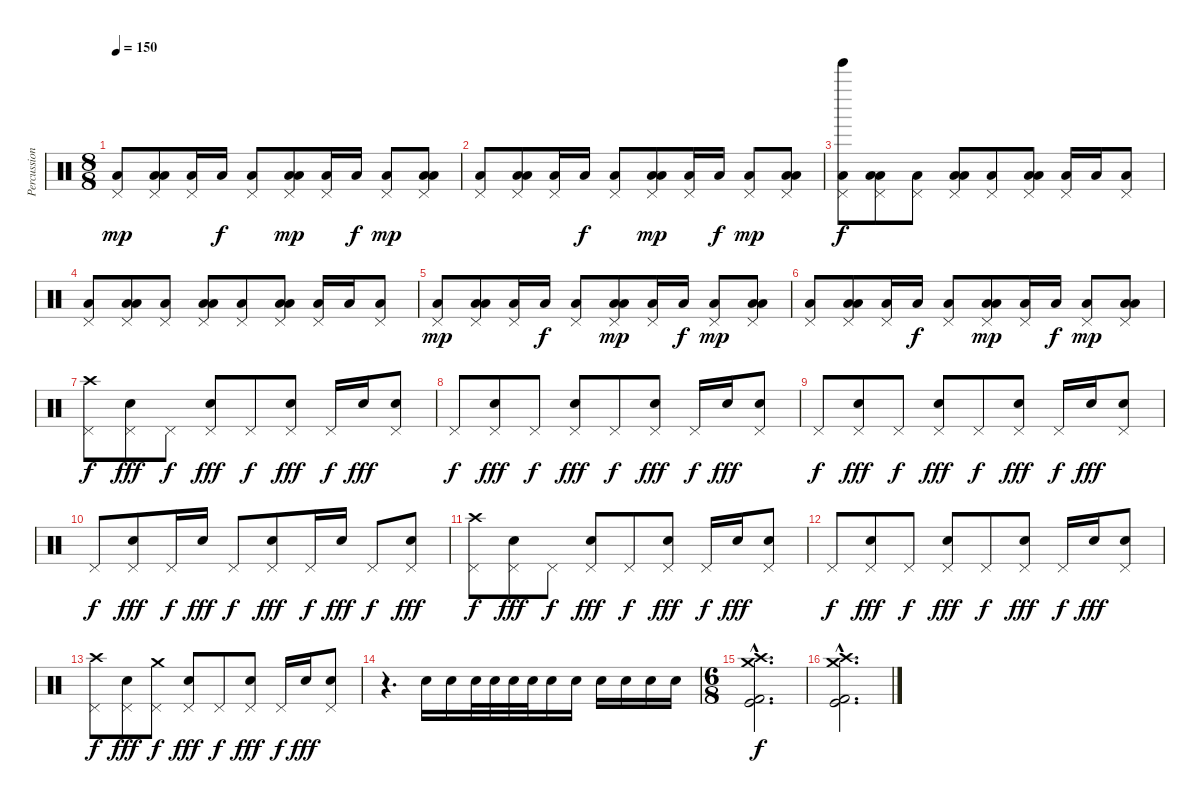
\track ("Percussion" "Percussion") {instrument percussion}
\staff {score}
\articulation defaults
\ts (8 8)
\tempo 150
\clef neutral
\ks c
("Pedal Hi-Hat (hit)" "Low Floor Tom (hit)").8{dy mp} ("Pedal Hi-Hat (hit)" "Low Floor Tom (hit)" "Low Tom (hit)").8 ("Pedal Hi-Hat (hit)" "Low Floor Tom (hit)").16 "Low Tom (hit)".16{dy f} ("Pedal Hi-Hat (hit)" "Low Floor Tom (hit)").8 ("Pedal Hi-Hat (hit)" "Low Floor Tom (hit)" "Low Tom (hit)").8{dy mp} ("Pedal Hi-Hat (hit)" "Low Floor Tom (hit)").16 "Low Tom (hit)".16{dy f} ("Pedal Hi-Hat (hit)" "Low Floor Tom (hit)").8{dy mp} ("Pedal Hi-Hat (hit)" "Low Floor Tom (hit)" "Low Tom (hit)").8 |
("Pedal Hi-Hat (hit)" "Low Floor Tom (hit)").8 ("Pedal Hi-Hat (hit)" "Low Floor Tom (hit)" "Low Tom (hit)").8 ("Pedal Hi-Hat (hit)" "Low Floor Tom (hit)").16 "Low Tom (hit)".16{dy f} ("Pedal Hi-Hat (hit)" "Low Floor Tom (hit)").8 ("Pedal Hi-Hat (hit)" "Low Floor Tom (hit)" "Low Tom (hit)").8{dy mp} ("Pedal Hi-Hat (hit)" "Low Floor Tom (hit)").16 "Low Tom (hit)".16{dy f} ("Pedal Hi-Hat (hit)" "Low Floor Tom (hit)").8{dy mp} ("Pedal Hi-Hat (hit)" "Low Floor Tom (hit)" "Low Tom (hit)").8 |
("Pedal Hi-Hat (hit)" "Low Floor Tom (hit)" "Tinkle Bell (hit)").8{dy f} ("Pedal Hi-Hat (hit)" "Low Floor Tom (hit)" "Low Tom (hit)").8 ("Pedal Hi-Hat (hit)" "Low Floor Tom (hit)").8 ("Pedal Hi-Hat (hit)" "Low Floor Tom (hit)" "Low Tom (hit)").8 ("Pedal Hi-Hat (hit)" "Low Floor Tom (hit)").8 ("Pedal Hi-Hat (hit)" "Low Floor Tom (hit)" "Low Tom (hit)").8 ("Pedal Hi-Hat (hit)" "Low Floor Tom (hit)").16 "Low Tom (hit)".16 ("Pedal Hi-Hat (hit)" "Low Floor Tom (hit)").8 |
("Pedal Hi-Hat (hit)" "Low Floor Tom (hit)").8 ("Pedal Hi-Hat (hit)" "Low Floor Tom (hit)" "Low Tom (hit)").8 ("Pedal Hi-Hat (hit)" "Low Floor Tom (hit)").8 ("Pedal Hi-Hat (hit)" "Low Floor Tom (hit)" "Low Tom (hit)").8 ("Pedal Hi-Hat (hit)" "Low Floor Tom (hit)").8 ("Pedal Hi-Hat (hit)" "Low Floor Tom (hit)" "Low Tom (hit)").8 ("Pedal Hi-Hat (hit)" "Low Floor Tom (hit)").16 "Low Tom (hit)".16 ("Pedal Hi-Hat (hit)" "Low Floor Tom (hit)").8 |
("Pedal Hi-Hat (hit)" "Low Floor Tom (hit)").8{dy mp} ("Pedal Hi-Hat (hit)" "Low Floor Tom (hit)" "Low Tom (hit)").8 ("Pedal Hi-Hat (hit)" "Low Floor Tom (hit)").16 "Low Tom (hit)".16{dy f} ("Pedal Hi-Hat (hit)" "Low Floor Tom (hit)").8 ("Pedal Hi-Hat (hit)" "Low Floor Tom (hit)" "Low Tom (hit)").8{dy mp} ("Pedal Hi-Hat (hit)" "Low Floor Tom (hit)").16 "Low Tom (hit)".16{dy f} ("Pedal Hi-Hat (hit)" "Low Floor Tom (hit)").8{dy mp} ("Pedal Hi-Hat (hit)" "Low Floor Tom (hit)" "Low Tom (hit)").8 |
("Pedal Hi-Hat (hit)" "Low Floor Tom (hit)").8 ("Pedal Hi-Hat (hit)" "Low Floor Tom (hit)" "Low Tom (hit)").8 ("Pedal Hi-Hat (hit)" "Low Floor Tom (hit)").16 "Low Tom (hit)".16{dy f} ("Pedal Hi-Hat (hit)" "Low Floor Tom (hit)").8 ("Pedal Hi-Hat (hit)" "Low Floor Tom (hit)" "Low Tom (hit)").8{dy mp} ("Pedal Hi-Hat (hit)" "Low Floor Tom (hit)").16 "Low Tom (hit)".16{dy f} ("Pedal Hi-Hat (hit)" "Low Floor Tom (hit)").8{dy mp} ("Pedal Hi-Hat (hit)" "Low Floor Tom (hit)" "Low Tom (hit)").8 |
("Pedal Hi-Hat (hit)" "Crash high (hit)").8{dy f} ("Pedal Hi-Hat (hit)" "Electric Snare (hit)").8{dy fff} "Pedal Hi-Hat (hit)".8{dy f} ("Pedal Hi-Hat (hit)" "Electric Snare (hit)").8{dy fff} "Pedal Hi-Hat (hit)".8{dy f} ("Pedal Hi-Hat (hit)" "Electric Snare (hit)").8{dy fff} "Pedal Hi-Hat (hit)".16{dy f} "Electric Snare (hit)".16{dy fff} ("Pedal Hi-Hat (hit)" "Electric Snare (hit)").8 |
"Pedal Hi-Hat (hit)".8{dy f} ("Pedal Hi-Hat (hit)" "Electric Snare (hit)").8{dy fff} "Pedal Hi-Hat (hit)".8{dy f} ("Pedal Hi-Hat (hit)" "Electric Snare (hit)").8{dy fff} "Pedal Hi-Hat (hit)".8{dy f} ("Pedal Hi-Hat (hit)" "Electric Snare (hit)").8{dy fff} "Pedal Hi-Hat (hit)".16{dy f} "Electric Snare (hit)".16{dy fff} ("Pedal Hi-Hat (hit)" "Electric Snare (hit)").8 |
"Pedal Hi-Hat (hit)".8{dy f} ("Pedal Hi-Hat (hit)" "Electric Snare (hit)").8{dy fff} "Pedal Hi-Hat (hit)".8{dy f} ("Pedal Hi-Hat (hit)" "Electric Snare (hit)").8{dy fff} "Pedal Hi-Hat (hit)".8{dy f} ("Pedal Hi-Hat (hit)" "Electric Snare (hit)").8{dy fff} "Pedal Hi-Hat (hit)".16{dy f} "Electric Snare (hit)".16{dy fff} ("Pedal Hi-Hat (hit)" "Electric Snare (hit)").8 |
"Pedal Hi-Hat (hit)".8{dy f} ("Pedal Hi-Hat (hit)" "Electric Snare (hit)").8{dy fff} "Pedal Hi-Hat (hit)".16{dy f} "Electric Snare (hit)".16{dy fff} "Pedal Hi-Hat (hit)".8{dy f} ("Pedal Hi-Hat (hit)" "Electric Snare (hit)").8{dy fff} "Pedal Hi-Hat (hit)".16{dy f} "Electric Snare (hit)".16{dy fff} "Pedal Hi-Hat (hit)".8{dy f} ("Pedal Hi-Hat (hit)" "Electric Snare (hit)").8{dy fff} |
("Pedal Hi-Hat (hit)" "Crash high (hit)").8{dy f} ("Pedal Hi-Hat (hit)" "Electric Snare (hit)").8{dy fff} "Pedal Hi-Hat (hit)".8{dy f} ("Pedal Hi-Hat (hit)" "Electric Snare (hit)").8{dy fff} "Pedal Hi-Hat (hit)".8{dy f} ("Pedal Hi-Hat (hit)" "Electric Snare (hit)").8{dy fff} "Pedal Hi-Hat (hit)".16{dy f} "Electric Snare (hit)".16{dy fff} ("Pedal Hi-Hat (hit)" "Electric Snare (hit)").8 |
"Pedal Hi-Hat (hit)".8{dy f} ("Pedal Hi-Hat (hit)" "Electric Snare (hit)").8{dy fff} "Pedal Hi-Hat (hit)".8{dy f} ("Pedal Hi-Hat (hit)" "Electric Snare (hit)").8{dy fff} "Pedal Hi-Hat (hit)".8{dy f} ("Pedal Hi-Hat (hit)" "Electric Snare (hit)").8{dy fff} "Pedal Hi-Hat (hit)".16{dy f} "Electric Snare (hit)".16{dy fff} ("Pedal Hi-Hat (hit)" "Electric Snare (hit)").8 |
("Pedal Hi-Hat (hit)" "Crash high (hit)").8{dy f} ("Pedal Hi-Hat (hit)" "Electric Snare (hit)").8{dy fff} ("Pedal Hi-Hat (hit)" "Crash medium (hit)").8{dy f} ("Pedal Hi-Hat (hit)" "Electric Snare (hit)").8{dy fff} "Pedal Hi-Hat (hit)".8{dy f} ("Pedal Hi-Hat (hit)" "Electric Snare (hit)").8{dy fff} "Pedal Hi-Hat (hit)".16{dy f} "Electric Snare (hit)".16{dy fff} ("Pedal Hi-Hat (hit)" "Electric Snare (hit)").8 |
r.4{d} "Electric Snare (hit)".16 "Electric Snare (hit)".16 "Electric Snare (hit)".32 "Electric Snare (hit)".32 "Electric Snare (hit)".32 "Electric Snare (hit)".32 "Electric Snare (hit)".16 "Electric Snare (hit)".16 "Electric Snare (hit)".16 "Electric Snare (hit)".16 "Electric Snare (hit)".16 "Electric Snare (hit)".16 |
\ts (6 8)
("Crash high (hit)"{hac} "Crash medium (hit)"{hac} "Kick (hit)"{hac} "Kick (hit) 2"{hac}).2{d dy f} |
("Crash high (hit)"{hac} "Crash medium (hit)"{hac} "Kick (hit)"{hac} "Kick (hit) 2"{hac}).2{d}
